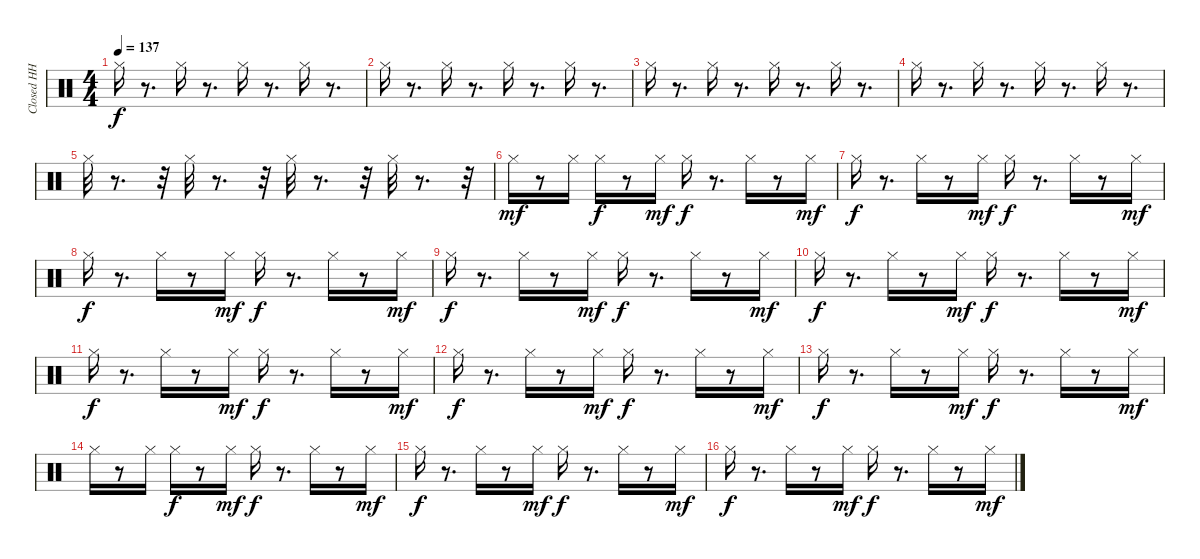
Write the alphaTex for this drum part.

\track ("Closed HH" "Closed HH") {instrument percussion}
\staff {score}
\articulation defaults
\ts (4 4)
\tempo 137
\clef neutral
\ks c "Hi-Hat (closed)".16{dy f}
r.8{d} "Hi-Hat (closed)".16 r.8{d} "Hi-Hat (closed)".16 r.8{d} "Hi-Hat (closed)".16 r.8{d} |
"Hi-Hat (closed)".16 r.8{d} "Hi-Hat (closed)".16 r.8{d} "Hi-Hat (closed)".16 r.8{d} "Hi-Hat (closed)".16 r.8{d} |
"Hi-Hat (closed)".16 r.8{d} "Hi-Hat (closed)".16 r.8{d} "Hi-Hat (closed)".16 r.8{d} "Hi-Hat (closed)".16 r.8{d} |
"Hi-Hat (closed)".16 r.8{d} "Hi-Hat (closed)".16 r.8{d} "Hi-Hat (closed)".16 r.8{d} "Hi-Hat (closed)".16 r.8{d} |
"Hi-Hat (closed)".32 r.8{d} r.32 "Hi-Hat (closed)".32 r.8{d} r.32 "Hi-Hat (closed)".32 r.8{d} r.32 "Hi-Hat (closed)".32 r.8{d} r.32 |
"Hi-Hat (closed)".16{dy mf} r.8 "Hi-Hat (closed)".16 "Hi-Hat (closed)".16{dy f} r.8 "Hi-Hat (closed)".16{dy mf} "Hi-Hat (closed)".16{dy f} r.8{d} "Hi-Hat (closed)".16 r.8 "Hi-Hat (closed)".16{dy mf} |
"Hi-Hat (closed)".16{dy f} r.8{d} "Hi-Hat (closed)".16 r.8 "Hi-Hat (closed)".16{dy mf} "Hi-Hat (closed)".16{dy f} r.8{d} "Hi-Hat (closed)".16 r.8 "Hi-Hat (closed)".16{dy mf} |
"Hi-Hat (closed)".16{dy f} r.8{d} "Hi-Hat (closed)".16 r.8 "Hi-Hat (closed)".16{dy mf} "Hi-Hat (closed)".16{dy f} r.8{d} "Hi-Hat (closed)".16 r.8 "Hi-Hat (closed)".16{dy mf} |
"Hi-Hat (closed)".16{dy f} r.8{d} "Hi-Hat (closed)".16 r.8 "Hi-Hat (closed)".16{dy mf} "Hi-Hat (closed)".16{dy f} r.8{d} "Hi-Hat (closed)".16 r.8 "Hi-Hat (closed)".16{dy mf} |
"Hi-Hat (closed)".16{dy f} r.8{d} "Hi-Hat (closed)".16 r.8 "Hi-Hat (closed)".16{dy mf} "Hi-Hat (closed)".16{dy f} r.8{d} "Hi-Hat (closed)".16 r.8 "Hi-Hat (closed)".16{dy mf} |
"Hi-Hat (closed)".16{dy f} r.8{d} "Hi-Hat (closed)".16 r.8 "Hi-Hat (closed)".16{dy mf} "Hi-Hat (closed)".16{dy f} r.8{d} "Hi-Hat (closed)".16 r.8 "Hi-Hat (closed)".16{dy mf} |
"Hi-Hat (closed)".16{dy f} r.8{d} "Hi-Hat (closed)".16 r.8 "Hi-Hat (closed)".16{dy mf} "Hi-Hat (closed)".16{dy f} r.8{d} "Hi-Hat (closed)".16 r.8 "Hi-Hat (closed)".16{dy mf} |
"Hi-Hat (closed)".16{dy f} r.8{d} "Hi-Hat (closed)".16 r.8 "Hi-Hat (closed)".16{dy mf} "Hi-Hat (closed)".16{dy f} r.8{d} "Hi-Hat (closed)".16 r.8 "Hi-Hat (closed)".16{dy mf} |
"Hi-Hat (closed)".16 r.8 "Hi-Hat (closed)".16 "Hi-Hat (closed)".16{dy f} r.8 "Hi-Hat (closed)".16{dy mf} "Hi-Hat (closed)".16{dy f} r.8{d} "Hi-Hat (closed)".16 r.8 "Hi-Hat (closed)".16{dy mf} |
"Hi-Hat (closed)".16{dy f} r.8{d} "Hi-Hat (closed)".16 r.8 "Hi-Hat (closed)".16{dy mf} "Hi-Hat (closed)".16{dy f} r.8{d} "Hi-Hat (closed)".16 r.8 "Hi-Hat (closed)".16{dy mf} |
"Hi-Hat (closed)".16{dy f} r.8{d} "Hi-Hat (closed)".16 r.8 "Hi-Hat (closed)".16{dy mf} "Hi-Hat (closed)".16{dy f} r.8{d} "Hi-Hat (closed)".16 r.8 "Hi-Hat (closed)".16{dy mf}
